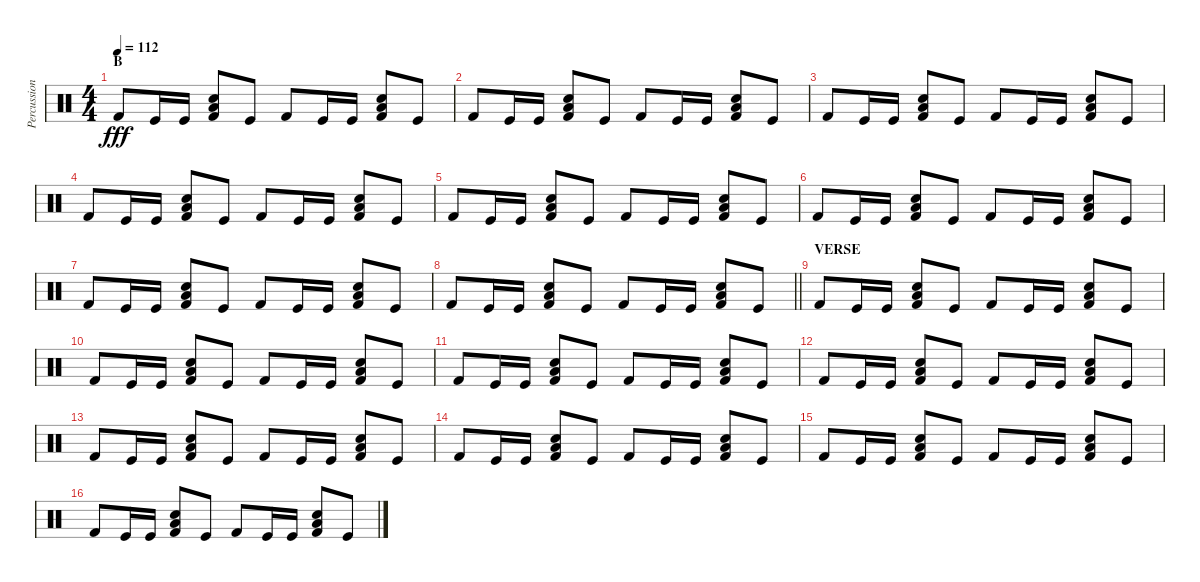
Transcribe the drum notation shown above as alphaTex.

\track ("Percussion" "Percussion") {instrument percussion}
\staff {score}
\articulation defaults
\ts (4 4)
\section ("" "B")
\tempo 112
\clef neutral
\ks c "Kick (hit) 2".8{dy fff} "Kick (hit)".16 "Kick (hit)".16
("Kick (hit) 2" "Low Floor Tom (hit)" "Hand Clap (hit)").8 "Kick (hit)".8 "Kick (hit) 2".8 "Kick (hit)".16 "Kick (hit)".16 ("Kick (hit) 2" "Low Floor Tom (hit)" "Hand Clap (hit)").8 "Kick (hit)".8 |
"Kick (hit) 2".8 "Kick (hit)".16 "Kick (hit)".16 ("Kick (hit) 2" "Low Floor Tom (hit)" "Hand Clap (hit)").8 "Kick (hit)".8 "Kick (hit) 2".8 "Kick (hit)".16 "Kick (hit)".16 ("Kick (hit) 2" "Low Floor Tom (hit)" "Hand Clap (hit)").8 "Kick (hit)".8 |
"Kick (hit) 2".8 "Kick (hit)".16 "Kick (hit)".16 ("Kick (hit) 2" "Low Floor Tom (hit)" "Hand Clap (hit)").8 "Kick (hit)".8 "Kick (hit) 2".8 "Kick (hit)".16 "Kick (hit)".16 ("Kick (hit) 2" "Low Floor Tom (hit)" "Hand Clap (hit)").8 "Kick (hit)".8 |
"Kick (hit) 2".8 "Kick (hit)".16 "Kick (hit)".16 ("Kick (hit) 2" "Low Floor Tom (hit)" "Hand Clap (hit)").8 "Kick (hit)".8 "Kick (hit) 2".8 "Kick (hit)".16 "Kick (hit)".16 ("Kick (hit) 2" "Low Floor Tom (hit)" "Hand Clap (hit)").8 "Kick (hit)".8 |
"Kick (hit) 2".8 "Kick (hit)".16 "Kick (hit)".16 ("Kick (hit) 2" "Low Floor Tom (hit)" "Hand Clap (hit)").8 "Kick (hit)".8 "Kick (hit) 2".8 "Kick (hit)".16 "Kick (hit)".16 ("Kick (hit) 2" "Low Floor Tom (hit)" "Hand Clap (hit)").8 "Kick (hit)".8 |
"Kick (hit) 2".8 "Kick (hit)".16 "Kick (hit)".16 ("Kick (hit) 2" "Low Floor Tom (hit)" "Hand Clap (hit)").8 "Kick (hit)".8 "Kick (hit) 2".8 "Kick (hit)".16 "Kick (hit)".16 ("Kick (hit) 2" "Low Floor Tom (hit)" "Hand Clap (hit)").8 "Kick (hit)".8 |
"Kick (hit) 2".8 "Kick (hit)".16 "Kick (hit)".16 ("Kick (hit) 2" "Low Floor Tom (hit)" "Hand Clap (hit)").8 "Kick (hit)".8 "Kick (hit) 2".8 "Kick (hit)".16 "Kick (hit)".16 ("Kick (hit) 2" "Low Floor Tom (hit)" "Hand Clap (hit)").8 "Kick (hit)".8 |
\barLineRight lightlight "Kick (hit) 2".8 "Kick (hit)".16 "Kick (hit)".16
("Kick (hit) 2" "Low Floor Tom (hit)" "Hand Clap (hit)").8 "Kick (hit)".8 "Kick (hit) 2".8 "Kick (hit)".16 "Kick (hit)".16 ("Kick (hit) 2" "Low Floor Tom (hit)" "Hand Clap (hit)").8 "Kick (hit)".8 |
\section ("" "VERSE")
"Kick (hit) 2".8 "Kick (hit)".16 "Kick (hit)".16 ("Kick (hit) 2" "Low Floor Tom (hit)" "Hand Clap (hit)").8 "Kick (hit)".8 "Kick (hit) 2".8 "Kick (hit)".16 "Kick (hit)".16 ("Kick (hit) 2" "Low Floor Tom (hit)" "Hand Clap (hit)").8 "Kick (hit)".8 |
"Kick (hit) 2".8 "Kick (hit)".16 "Kick (hit)".16 ("Kick (hit) 2" "Low Floor Tom (hit)" "Hand Clap (hit)").8 "Kick (hit)".8 "Kick (hit) 2".8 "Kick (hit)".16 "Kick (hit)".16 ("Kick (hit) 2" "Low Floor Tom (hit)" "Hand Clap (hit)").8 "Kick (hit)".8 |
"Kick (hit) 2".8 "Kick (hit)".16 "Kick (hit)".16 ("Kick (hit) 2" "Low Floor Tom (hit)" "Hand Clap (hit)").8 "Kick (hit)".8 "Kick (hit) 2".8 "Kick (hit)".16 "Kick (hit)".16 ("Kick (hit) 2" "Low Floor Tom (hit)" "Hand Clap (hit)").8 "Kick (hit)".8 |
"Kick (hit) 2".8 "Kick (hit)".16 "Kick (hit)".16 ("Kick (hit) 2" "Low Floor Tom (hit)" "Hand Clap (hit)").8 "Kick (hit)".8 "Kick (hit) 2".8 "Kick (hit)".16 "Kick (hit)".16 ("Kick (hit) 2" "Low Floor Tom (hit)" "Hand Clap (hit)").8 "Kick (hit)".8 |
"Kick (hit) 2".8 "Kick (hit)".16 "Kick (hit)".16 ("Kick (hit) 2" "Low Floor Tom (hit)" "Hand Clap (hit)").8 "Kick (hit)".8 "Kick (hit) 2".8 "Kick (hit)".16 "Kick (hit)".16 ("Kick (hit) 2" "Low Floor Tom (hit)" "Hand Clap (hit)").8 "Kick (hit)".8 |
"Kick (hit) 2".8 "Kick (hit)".16 "Kick (hit)".16 ("Kick (hit) 2" "Low Floor Tom (hit)" "Hand Clap (hit)").8 "Kick (hit)".8 "Kick (hit) 2".8 "Kick (hit)".16 "Kick (hit)".16 ("Kick (hit) 2" "Low Floor Tom (hit)" "Hand Clap (hit)").8 "Kick (hit)".8 |
"Kick (hit) 2".8 "Kick (hit)".16 "Kick (hit)".16 ("Kick (hit) 2" "Low Floor Tom (hit)" "Hand Clap (hit)").8 "Kick (hit)".8 "Kick (hit) 2".8 "Kick (hit)".16 "Kick (hit)".16 ("Kick (hit) 2" "Low Floor Tom (hit)" "Hand Clap (hit)").8 "Kick (hit)".8 |
"Kick (hit) 2".8 "Kick (hit)".16 "Kick (hit)".16 ("Kick (hit) 2" "Low Floor Tom (hit)" "Hand Clap (hit)").8 "Kick (hit)".8 "Kick (hit) 2".8 "Kick (hit)".16 "Kick (hit)".16 ("Kick (hit) 2" "Low Floor Tom (hit)" "Hand Clap (hit)").8 "Kick (hit)".8
